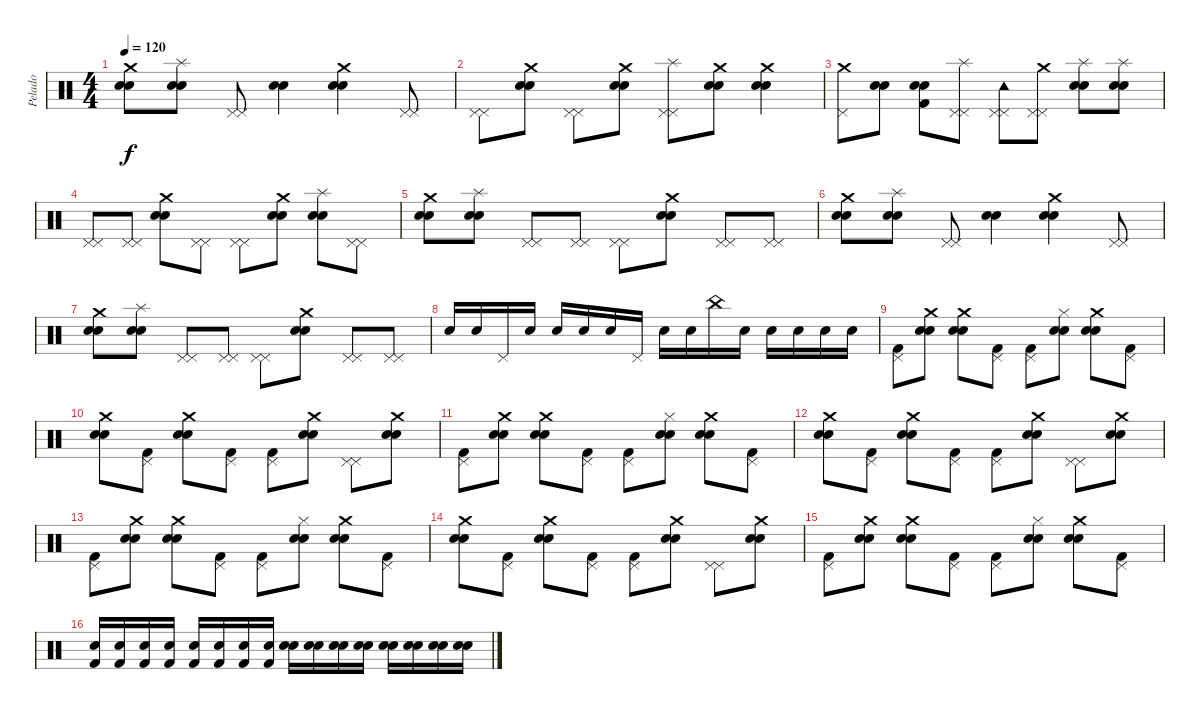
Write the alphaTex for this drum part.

\track ("Pelado" "Pelado") {instrument percussion}
\staff {score}
\articulation defaults
\ts (4 4)
\tempo 120
\clef neutral
\ks c
("Crash medium (hit)" "Snare (hit) 2" "Snare (hit) 2").8{dy f} ("Splash (hit)" "Snare (hit) 2" "Snare (hit) 2").8 ("Pedal Hi-Hat (hit)" "Pedal Hi-Hat (hit)").8 ("Snare (hit) 2" "Snare (hit) 2").4 ("Crash medium (hit)" "Snare (hit) 2" "Snare (hit) 2").4 ("Pedal Hi-Hat (hit)" "Pedal Hi-Hat (hit)").8 |
("Pedal Hi-Hat (hit)" "Pedal Hi-Hat (hit)").8 ("Crash medium (hit)" "Snare (hit) 2" "Snare (hit) 2").8 ("Pedal Hi-Hat (hit)" "Pedal Hi-Hat (hit)").8 ("Crash medium (hit)" "Snare (hit) 2" "Snare (hit) 2").8 ("Splash (hit)" "Pedal Hi-Hat (hit)" "Pedal Hi-Hat (hit)").8 ("Crash medium (hit)" "Snare (hit) 2" "Snare (hit) 2").8 ("Crash medium (hit)" "Snare (hit) 2" "Snare (hit) 2").4 |
("Crash medium (hit)" "Pedal Hi-Hat (hit)").8 ("Snare (hit) 2" "Snare (hit) 2").8 ("Kick (hit) 2" "Snare (hit) 2" "Snare (hit) 2").8 ("Splash (hit)" "Pedal Hi-Hat (hit)" "Pedal Hi-Hat (hit)").8 ("Tambourine (hit)" "Pedal Hi-Hat (hit)" "Pedal Hi-Hat (hit)").8 ("Crash medium (hit)" "Pedal Hi-Hat (hit)" "Pedal Hi-Hat (hit)").8 ("Splash (hit)" "Snare (hit) 2" "Snare (hit) 2").8 ("Splash (hit)" "Electric Snare (hit)" "Electric Snare (hit)").8 |
("Pedal Hi-Hat (hit)" "Pedal Hi-Hat (hit)").8 ("Pedal Hi-Hat (hit)" "Pedal Hi-Hat (hit)").8 ("Crash medium (hit)" "Snare (hit) 2" "Snare (hit) 2").8 ("Pedal Hi-Hat (hit)" "Pedal Hi-Hat (hit)").8 ("Pedal Hi-Hat (hit)" "Pedal Hi-Hat (hit)").8 ("Crash medium (hit)" "Snare (hit) 2" "Snare (hit) 2").8 ("Splash (hit)" "Snare (hit) 2" "Snare (hit) 2").8 ("Pedal Hi-Hat (hit)" "Pedal Hi-Hat (hit)").8 |
("Crash medium (hit)" "Snare (hit) 2" "Snare (hit) 2").8 ("Splash (hit)" "Snare (hit) 2" "Snare (hit) 2").8 ("Pedal Hi-Hat (hit)" "Pedal Hi-Hat (hit)").8 ("Pedal Hi-Hat (hit)" "Pedal Hi-Hat (hit)").8 ("Pedal Hi-Hat (hit)" "Pedal Hi-Hat (hit)").8 ("Crash medium (hit)" "Snare (hit) 2" "Snare (hit) 2").8 ("Pedal Hi-Hat (hit)" "Pedal Hi-Hat (hit)").8 ("Pedal Hi-Hat (hit)" "Pedal Hi-Hat (hit)").8 |
("Crash medium (hit)" "Snare (hit) 2" "Snare (hit) 2").8 ("Splash (hit)" "Snare (hit) 2" "Snare (hit) 2").8 ("Pedal Hi-Hat (hit)" "Pedal Hi-Hat (hit)").8 ("Snare (hit) 2" "Snare (hit) 2").4 ("Crash medium (hit)" "Snare (hit) 2" "Snare (hit) 2").4 ("Pedal Hi-Hat (hit)" "Pedal Hi-Hat (hit)").8 |
("Crash medium (hit)" "Snare (hit) 2" "Snare (hit) 2").8 ("Splash (hit)" "Snare (hit) 2" "Snare (hit) 2").8 ("Pedal Hi-Hat (hit)" "Pedal Hi-Hat (hit)").8 ("Pedal Hi-Hat (hit)" "Pedal Hi-Hat (hit)").8 ("Pedal Hi-Hat (hit)" "Pedal Hi-Hat (hit)").8 ("Crash medium (hit)" "Snare (hit) 2" "Snare (hit) 2").8 ("Pedal Hi-Hat (hit)" "Pedal Hi-Hat (hit)").8 ("Pedal Hi-Hat (hit)" "Pedal Hi-Hat (hit)").8 |
"Snare (hit) 2".16 "Snare (hit) 2".16 "Pedal Hi-Hat (hit)".16 "Snare (hit) 2".16 "Snare (hit) 2".16 "Snare (hit) 2".16 "Snare (hit) 2".16 "Pedal Hi-Hat (hit)".16 "Snare (hit) 2".16 "Snare (hit) 2".16 "China (hit)".16 "Snare (hit) 2".16 "Electric Snare (hit)".16 "Electric Snare (hit)".16 "Electric Snare (hit)".16 "Electric Snare (hit)".16 |
("Pedal Hi-Hat (hit)" "Kick (hit) 2").8 ("Crash medium (hit)" "Snare (hit) 2" "Snare (hit) 2").8 ("Crash medium (hit)" "Snare (hit) 2" "Snare (hit) 2").8 ("Pedal Hi-Hat (hit)" "Kick (hit) 2").8 ("Pedal Hi-Hat (hit)" "Kick (hit) 2").8 ("Hi-Hat (closed)" "Snare (hit) 2" "Snare (hit) 2").8 ("Crash medium (hit)" "Snare (hit) 2" "Snare (hit) 2").8 ("Pedal Hi-Hat (hit)" "Kick (hit) 2").8 |
("Crash medium (hit)" "Snare (hit) 2" "Snare (hit) 2").8 ("Pedal Hi-Hat (hit)" "Kick (hit) 2").8 ("Crash medium (hit)" "Snare (hit) 2" "Snare (hit) 2").8 ("Pedal Hi-Hat (hit)" "Kick (hit) 2").8 ("Pedal Hi-Hat (hit)" "Kick (hit) 2").8 ("Crash medium (hit)" "Snare (hit) 2" "Snare (hit) 2").8 ("Pedal Hi-Hat (hit)" "Pedal Hi-Hat (hit)").8 ("Crash medium (hit)" "Snare (hit) 2" "Snare (hit) 2").8 |
("Pedal Hi-Hat (hit)" "Kick (hit) 2").8 ("Crash medium (hit)" "Snare (hit) 2" "Snare (hit) 2").8 ("Crash medium (hit)" "Snare (hit) 2" "Snare (hit) 2").8 ("Pedal Hi-Hat (hit)" "Kick (hit) 2").8 ("Pedal Hi-Hat (hit)" "Kick (hit) 2").8 ("Hi-Hat (closed)" "Snare (hit) 2" "Snare (hit) 2").8 ("Crash medium (hit)" "Snare (hit) 2" "Snare (hit) 2").8 ("Pedal Hi-Hat (hit)" "Kick (hit) 2").8 |
("Crash medium (hit)" "Snare (hit) 2" "Snare (hit) 2").8 ("Pedal Hi-Hat (hit)" "Kick (hit) 2").8 ("Crash medium (hit)" "Snare (hit) 2" "Snare (hit) 2").8 ("Pedal Hi-Hat (hit)" "Kick (hit) 2").8 ("Pedal Hi-Hat (hit)" "Kick (hit) 2").8 ("Crash medium (hit)" "Snare (hit) 2" "Snare (hit) 2").8 ("Pedal Hi-Hat (hit)" "Pedal Hi-Hat (hit)").8 ("Crash medium (hit)" "Snare (hit) 2" "Snare (hit) 2").8 |
("Pedal Hi-Hat (hit)" "Kick (hit) 2").8 ("Crash medium (hit)" "Snare (hit) 2" "Snare (hit) 2").8 ("Crash medium (hit)" "Snare (hit) 2" "Snare (hit) 2").8 ("Pedal Hi-Hat (hit)" "Kick (hit) 2").8 ("Pedal Hi-Hat (hit)" "Kick (hit) 2").8 ("Hi-Hat (closed)" "Snare (hit) 2" "Snare (hit) 2").8 ("Crash medium (hit)" "Snare (hit) 2" "Snare (hit) 2").8 ("Pedal Hi-Hat (hit)" "Kick (hit) 2").8 |
("Crash medium (hit)" "Snare (hit) 2" "Snare (hit) 2").8 ("Pedal Hi-Hat (hit)" "Kick (hit) 2").8 ("Crash medium (hit)" "Snare (hit) 2" "Snare (hit) 2").8 ("Pedal Hi-Hat (hit)" "Kick (hit) 2").8 ("Pedal Hi-Hat (hit)" "Kick (hit) 2").8 ("Crash medium (hit)" "Snare (hit) 2" "Snare (hit) 2").8 ("Pedal Hi-Hat (hit)" "Pedal Hi-Hat (hit)").8 ("Crash medium (hit)" "Snare (hit) 2" "Snare (hit) 2").8 |
("Pedal Hi-Hat (hit)" "Kick (hit) 2").8 ("Crash medium (hit)" "Snare (hit) 2" "Snare (hit) 2").8 ("Crash medium (hit)" "Snare (hit) 2" "Snare (hit) 2").8 ("Pedal Hi-Hat (hit)" "Kick (hit) 2").8 ("Pedal Hi-Hat (hit)" "Kick (hit) 2").8 ("Hi-Hat (closed)" "Snare (hit) 2" "Snare (hit) 2").8 ("Crash medium (hit)" "Snare (hit) 2" "Snare (hit) 2").8 ("Pedal Hi-Hat (hit)" "Kick (hit) 2").8 |
("Snare (hit) 2" "Kick (hit) 2").16 ("Snare (hit) 2" "Kick (hit) 2").16 ("Snare (hit) 2" "Kick (hit) 2").16 ("Snare (hit) 2" "Kick (hit) 2").16 ("Snare (hit) 2" "Kick (hit) 2").16 ("Snare (hit) 2" "Kick (hit) 2").16 ("Snare (hit) 2" "Kick (hit) 2").16 ("Snare (hit) 2" "Kick (hit) 2").16 ("Electric Snare (hit)" "Electric Snare (hit)").16 ("Electric Snare (hit)" "Electric Snare (hit)").16 ("Electric Snare (hit)" "Electric Snare (hit)").16 ("Electric Snare (hit)" "Electric Snare (hit)").16 ("Electric Snare (hit)" "Electric Snare (hit)").16 ("Electric Snare (hit)" "Electric Snare (hit)").16 ("Electric Snare (hit)" "Electric Snare (hit)").16 ("Electric Snare (hit)" "Electric Snare (hit)").16
